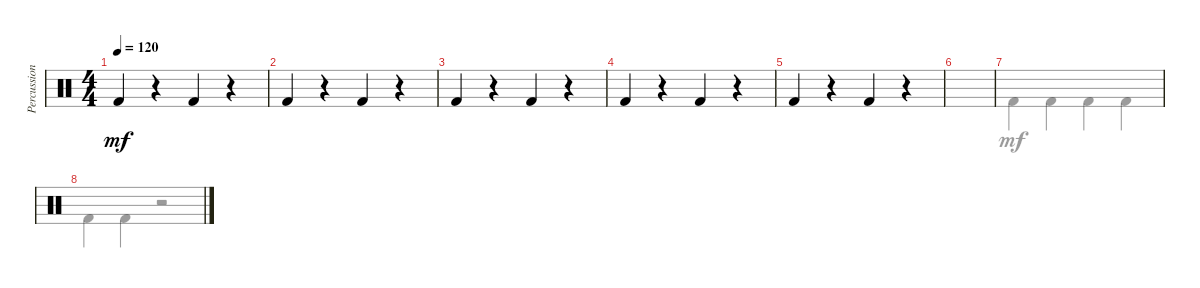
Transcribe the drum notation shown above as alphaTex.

\track ("Percussions 1" "Percussion") {instrument percussion}
\staff {score}
\articulation defaults
\voice
\ts (4 4)
\tempo 120
\clef neutral
\ks c "Kick (hit) 2".4{dy mf}
r.4 "Kick (hit) 2".4 r.4 |
"Kick (hit) 2".4 r.4 "Kick (hit) 2".4 r.4 |
"Kick (hit) 2".4 r.4 "Kick (hit) 2".4 r.4 |
"Kick (hit) 2".4 r.4 "Kick (hit) 2".4 r.4 |
"Kick (hit) 2".4 r.4 "Kick (hit) 2".4 r.4 |
|
|
|
|
|
|
|
|
|
|
\voice
\clef neutral
\ottava regular
\simile none
\ks c
|
|
|
|
|
|
"Kick (hit) 2".4 "Kick (hit) 2".4 "Kick (hit) 2".4 "Kick (hit) 2".4 |
"Kick (hit) 2".4 "Kick (hit) 2".4 r.2 |
|
|
|
|
|
|
|
